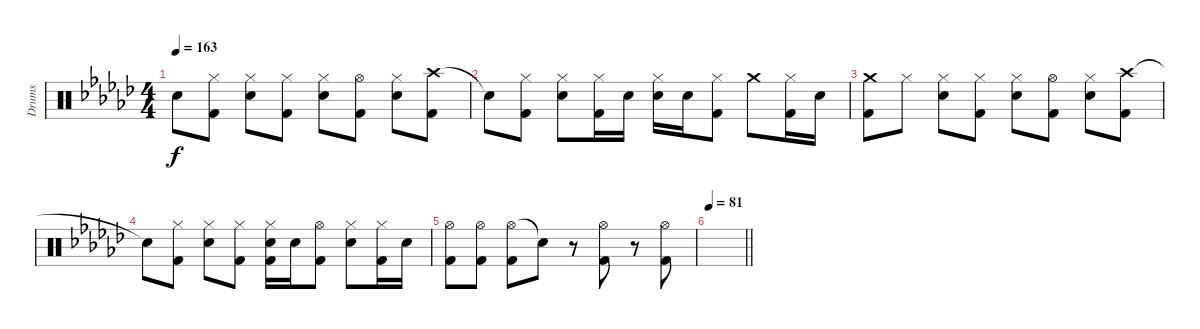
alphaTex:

\track ("Drums" "Drums") {mute instrument percussion}
\staff {score}
\articulation defaults
\ts (4 4)
\tempo 163
\clef neutral
\ks gb "Snare (hit)"{t}.8{dy f}
("Hi-Hat (closed)" "Kick (hit) 2").8 ("Hi-Hat (closed)" "Snare (hit) 2").8 ("Hi-Hat (closed)" "Kick (hit) 2").8 ("Hi-Hat (closed)" "Snare (hit) 2").8 ("Hi-Hat (open)" "Kick (hit) 2").8 ("Hi-Hat (closed)" "Snare (hit) 2").8 ("Crash high (hit)" "Kick (hit) 2").8 |
"Snare (hit)"{t}.8 ("Hi-Hat (closed)" "Kick (hit) 2").8 ("Hi-Hat (closed)" "Snare (hit) 2").8 ("Hi-Hat (closed)" "Kick (hit) 2").16 "Snare (hit) 2".16 ("Hi-Hat (closed)" "Snare (hit) 2").16 "Snare (hit) 2".16 ("Hi-Hat (closed)" "Kick (hit) 2").8 "Crash medium (hit)".8 ("Hi-Hat (closed)" "Kick (hit) 2").16 "Snare (hit) 2".16 |
("Crash medium (hit)" "Kick (hit) 2").8 "Hi-Hat (closed)".8 ("Hi-Hat (closed)" "Snare (hit) 2").8 ("Hi-Hat (closed)" "Kick (hit) 2").8 ("Hi-Hat (closed)" "Snare (hit) 2").8 ("Hi-Hat (open)" "Kick (hit) 2").8 ("Hi-Hat (closed)" "Snare (hit) 2").8 ("Crash high (hit)" "Kick (hit) 2").8 |
"Snare (hit)"{t}.8 ("Hi-Hat (closed)" "Kick (hit) 2").8 ("Hi-Hat (closed)" "Snare (hit) 2").8 ("Hi-Hat (closed)" "Kick (hit) 2").8 ("Hi-Hat (closed)" "Snare (hit) 2" "Kick (hit) 2").16 "Snare (hit) 2".16 ("Hi-Hat (open)" "Kick (hit) 2").8 ("Hi-Hat (closed)" "Snare (hit) 2").8 ("Hi-Hat (closed)" "Kick (hit) 2").16 "Snare (hit) 2".16 |
("Hi-Hat (open)" "Kick (hit) 2").8 ("Hi-Hat (open)" "Kick (hit) 2").8 ("Hi-Hat (open)" "Kick (hit) 2").8 "Snare (hit)"{t}.8 r.8 ("Hi-Hat (open)" "Kick (hit) 2").8 r.8 ("Hi-Hat (open)" "Kick (hit) 2").8 |
\tempo 81
\barLineRight lightlight
